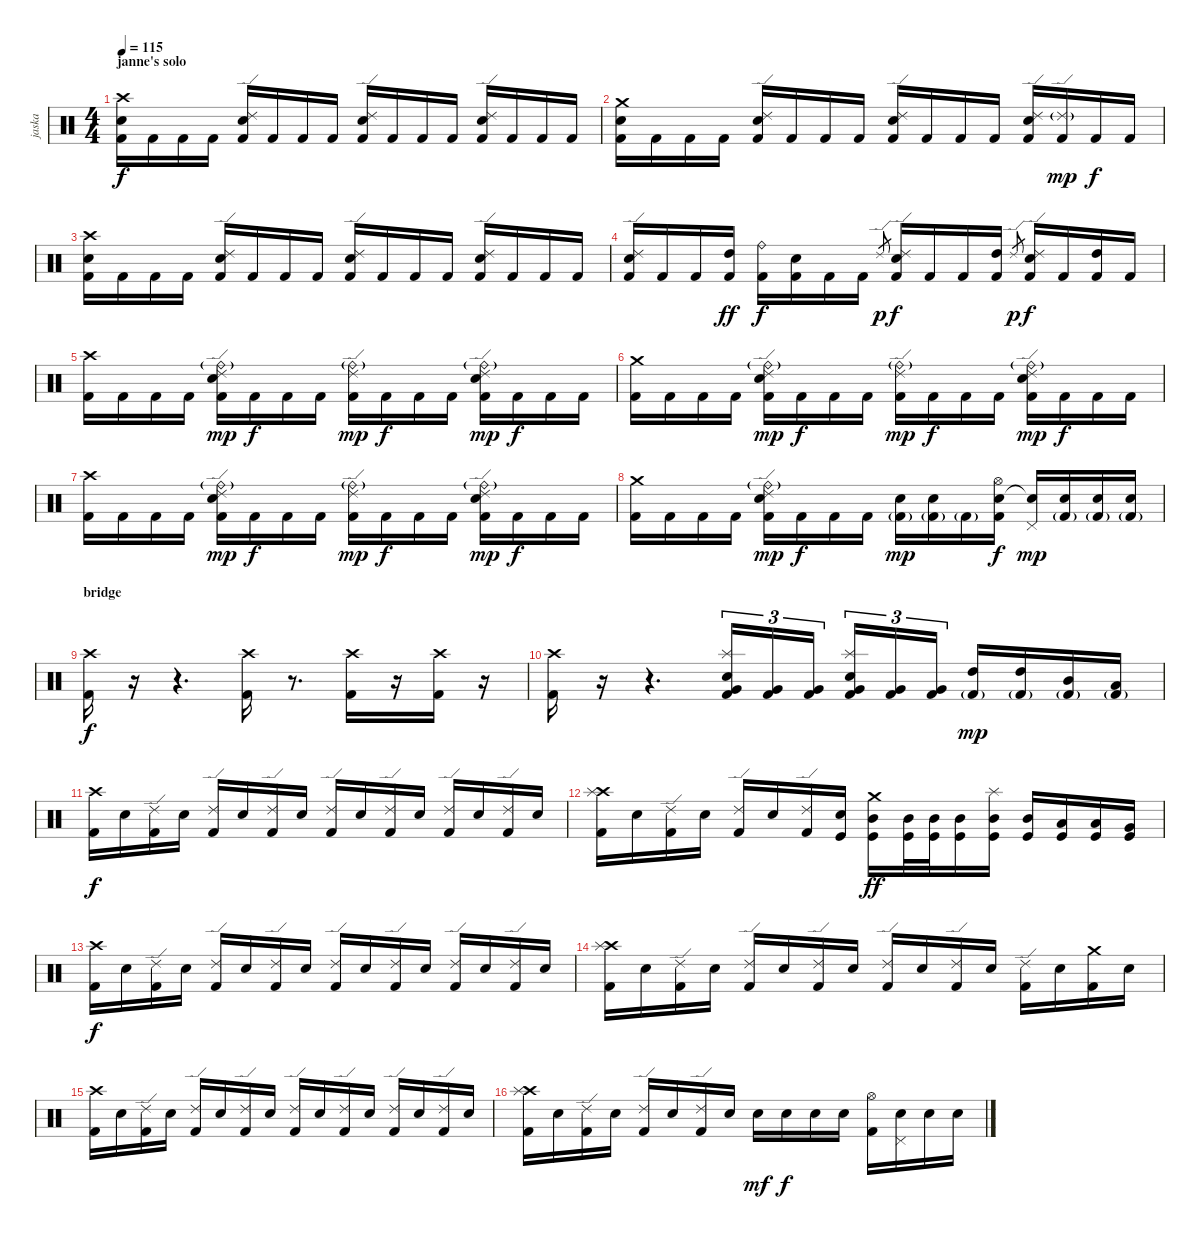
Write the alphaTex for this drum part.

\track ("jaska" "jaska") {instrument percussion}
\staff {score}
\articulation defaults
\ts (4 4)
\section ("" "janne's solo")
\tempo 115
\clef neutral
\ks c
("Crash high (hit)" "Electric Snare (hit)" "Kick (hit) 2").16{dy f} "Kick (hit) 2".16 "Kick (hit) 2".16 "Kick (hit) 2".16 ("Ride (edge) 2" "Electric Snare (hit)" "Kick (hit) 2").16 "Kick (hit) 2".16 "Kick (hit) 2".16 "Kick (hit) 2".16 ("Ride (edge) 2" "Electric Snare (hit)" "Kick (hit) 2").16 "Kick (hit) 2".16 "Kick (hit) 2".16 "Kick (hit) 2".16 ("Ride (edge) 2" "Electric Snare (hit)" "Kick (hit) 2").16 "Kick (hit) 2".16 "Kick (hit) 2".16 "Kick (hit) 2".16 |
("Crash medium (hit)" "Electric Snare (hit)" "Kick (hit) 2").16 "Kick (hit) 2".16 "Kick (hit) 2".16 "Kick (hit) 2".16 ("Ride (edge) 2" "Electric Snare (hit)" "Kick (hit) 2").16 "Kick (hit) 2".16 "Kick (hit) 2".16 "Kick (hit) 2".16 ("Ride (edge) 2" "Electric Snare (hit)" "Kick (hit) 2").16 "Kick (hit) 2".16 "Kick (hit) 2".16 "Kick (hit) 2".16 ("Ride (edge) 2" "Electric Snare (hit)" "Kick (hit) 2").16 ("Ride (edge) 2"{g} "Kick (hit) 2").16{dy mp} "Kick (hit) 2".16{dy f} "Kick (hit) 2".16 |
("Crash high (hit)" "Electric Snare (hit)" "Kick (hit) 2").16 "Kick (hit) 2".16 "Kick (hit) 2".16 "Kick (hit) 2".16 ("Ride (edge) 2" "Electric Snare (hit)" "Kick (hit) 2").16 "Kick (hit) 2".16 "Kick (hit) 2".16 "Kick (hit) 2".16 ("Ride (edge) 2" "Electric Snare (hit)" "Kick (hit) 2").16 "Kick (hit) 2".16 "Kick (hit) 2".16 "Kick (hit) 2".16 ("Ride (edge) 2" "Electric Snare (hit)" "Kick (hit) 2").16 "Kick (hit) 2".16 "Kick (hit) 2".16 "Kick (hit) 2".16 |
("Ride (edge) 2" "Electric Snare (hit)" "Kick (hit) 2").16 "Kick (hit) 2".16 "Kick (hit) 2".16 ("High Tom (hit)" "Kick (hit) 2").16{dy ff} ("Ride (bell)" "Kick (hit) 2").16{dy f} ("Electric Snare (hit)" "Kick (hit) 2").16 "Kick (hit) 2".16 "Kick (hit) 2".16 "Ride (edge) 2".8{gr dy p} ("Ride (edge) 2" "Electric Snare (hit)" "Kick (hit) 2").16{dy f} "Kick (hit) 2".16 "Kick (hit) 2".16 ("High Tom (hit)" "Kick (hit) 2").16 "Ride (edge) 2".8{gr dy p} ("Ride (edge) 2" "Electric Snare (hit)" "Kick (hit) 2").16{dy f} "Kick (hit) 2".16 ("High Tom (hit)" "Kick (hit) 2").16 "Kick (hit) 2".16 |
("Crash high (hit)" "Kick (hit) 2").16 "Kick (hit) 2".16 "Kick (hit) 2".16 "Kick (hit) 2".16 ("Ride (edge) 2" "Ride (bell)"{g} "Electric Snare (hit)" "Kick (hit) 2").16{dy mp} "Kick (hit) 2".16{dy f} "Kick (hit) 2".16 "Kick (hit) 2".16 ("Ride (edge) 2" "Ride (bell)"{g} "Kick (hit) 2").16{dy mp} "Kick (hit) 2".16{dy f} "Kick (hit) 2".16 "Kick (hit) 2".16 ("Ride (edge) 2" "Ride (bell)"{g} "Electric Snare (hit)" "Kick (hit) 2").16{dy mp} "Kick (hit) 2".16{dy f} "Kick (hit) 2".16 "Kick (hit) 2".16 |
("Crash medium (hit)" "Kick (hit) 2").16{balance 9} "Kick (hit) 2".16{balance 8} "Kick (hit) 2".16 "Kick (hit) 2".16 ("Ride (edge) 2" "Ride (bell)"{g} "Electric Snare (hit)" "Kick (hit) 2").16{dy mp} "Kick (hit) 2".16{dy f} "Kick (hit) 2".16 "Kick (hit) 2".16 ("Ride (edge) 2" "Ride (bell)"{g} "Kick (hit) 2").16{dy mp} "Kick (hit) 2".16{dy f} "Kick (hit) 2".16 "Kick (hit) 2".16 ("Ride (edge) 2" "Ride (bell)"{g} "Electric Snare (hit)" "Kick (hit) 2").16{dy mp} "Kick (hit) 2".16{dy f} "Kick (hit) 2".16 "Kick (hit) 2".16 |
("Crash high (hit)" "Kick (hit) 2").16 "Kick (hit) 2".16 "Kick (hit) 2".16 "Kick (hit) 2".16 ("Ride (edge) 2" "Ride (bell)"{g} "Electric Snare (hit)" "Kick (hit) 2").16{dy mp} "Kick (hit) 2".16{dy f} "Kick (hit) 2".16 "Kick (hit) 2".16 ("Ride (edge) 2" "Ride (bell)"{g} "Kick (hit) 2").16{dy mp} "Kick (hit) 2".16{dy f} "Kick (hit) 2".16 "Kick (hit) 2".16 ("Ride (edge) 2" "Ride (bell)"{g} "Electric Snare (hit)" "Kick (hit) 2").16{dy mp} "Kick (hit) 2".16{dy f} "Kick (hit) 2".16 "Kick (hit) 2".16 |
("Crash medium (hit)" "Kick (hit) 2").16 "Kick (hit) 2".16 "Kick (hit) 2".16 "Kick (hit) 2".16 ("Ride (edge) 2" "Ride (bell)"{g} "Electric Snare (hit)" "Kick (hit) 2").16{dy mp} "Kick (hit) 2".16{dy f} "Kick (hit) 2".16 "Kick (hit) 2".16 ("Electric Snare (hit)" "Kick (hit) 2"{g}).16{dy mp} ("Electric Snare (hit)" "Kick (hit) 2"{g}).16 "Kick (hit) 2"{g}.16 ("Hi-Hat (open)" "Electric Snare (hit)" "Kick (hit) 2").16{dy f} ("Pedal Hi-Hat (hit)" "Snare (hit)"{t}).16{dy mp} ("Electric Snare (hit)" "Kick (hit) 2"{g}).16 ("Electric Snare (hit)" "Kick (hit) 2"{g}).16 ("Electric Snare (hit)" "Kick (hit) 2"{g}).16 |
\section ("" "bridge")
("Crash high (hit)"{pm} "Kick (hit) 2").16{dy f} r.16 r.4{d} ("Crash high (hit)"{pm} "Kick (hit) 2").16 r.8{d} ("Crash high (hit)"{pm} "Kick (hit) 2").16 r.16 ("Crash high (hit)"{pm} "Kick (hit) 2").16 r.16 |
("Crash high (hit)"{pm} "Kick (hit) 2").16 r.16 r.4{d} ("Splash (hit)" "Electric Snare (hit)" "Very Low Tom (hit)" "Kick (hit) 2").16{tu (3 2)} ("Very Low Tom (hit)" "Kick (hit) 2").16{tu (3 2)} ("Very Low Tom (hit)" "Kick (hit) 2").16{tu (3 2)} ("Splash (hit)" "Electric Snare (hit)" "Very Low Tom (hit)" "Kick (hit) 2").16{tu (3 2)} ("Very Low Tom (hit)" "Kick (hit) 2").16{tu (3 2)} ("Very Low Tom (hit)" "Kick (hit) 2").16{tu (3 2)} ("High Tom (hit)" "Kick (hit) 2"{g}).16{dy mp} ("High Tom (hit)" "Kick (hit) 2"{g}).16 ("Mid Tom (hit)" "Kick (hit) 2"{g}).16 ("Low Tom (hit)" "Kick (hit) 2"{g}).16 |
("Crash high (hit)" "Kick (hit) 2").16{dy f} "Electric Snare (hit)".16 ("Ride (edge) 2" "Kick (hit) 2").16 "Electric Snare (hit)".16 ("Ride (edge) 2" "Kick (hit) 2").16 "Electric Snare (hit)".16 ("Ride (edge) 2" "Kick (hit) 2").16 "Electric Snare (hit)".16 ("Ride (edge) 2" "Kick (hit) 2").16 "Electric Snare (hit)".16 ("Ride (edge) 2" "Kick (hit) 2").16 "Electric Snare (hit)".16 ("Ride (edge) 2" "Kick (hit) 2").16 "Electric Snare (hit)".16 ("Ride (edge) 2" "Kick (hit) 2").16 "Electric Snare (hit)".16 |
("Crash high (hit)" "Splash (hit)" "Kick (hit) 2").16 "Electric Snare (hit)".16 ("Ride (edge) 2" "Kick (hit) 2").16 "Electric Snare (hit)".16 ("Ride (edge) 2" "Kick (hit) 2").16 "Electric Snare (hit)".16 ("Ride (edge) 2" "Kick (hit) 2").16 ("Electric Snare (hit)" "Kick (hit)").16 ("Crash medium (hit)" "Mid Tom (hit)" "Kick (hit)").16{dy ff} ("Mid Tom (hit)" "Kick (hit)").32 ("Mid Tom (hit)" "Kick (hit)").32 ("Mid Tom (hit)" "Kick (hit)").16 ("Splash (hit)" "Mid Tom (hit)" "Kick (hit)").16 ("Mid Tom (hit)" "Kick (hit)").16 ("Low Tom (hit)" "Kick (hit)").16 ("Low Tom (hit)" "Kick (hit)").16 ("Very Low Tom (hit)" "Kick (hit)").16 |
("Crash high (hit)" "Kick (hit) 2").16{dy f} "Electric Snare (hit)".16 ("Ride (edge) 2" "Kick (hit) 2").16 "Electric Snare (hit)".16 ("Ride (edge) 2" "Kick (hit) 2").16 "Electric Snare (hit)".16 ("Ride (edge) 2" "Kick (hit) 2").16 "Electric Snare (hit)".16 ("Ride (edge) 2" "Kick (hit) 2").16 "Electric Snare (hit)".16 ("Ride (edge) 2" "Kick (hit) 2").16 "Electric Snare (hit)".16 ("Ride (edge) 2" "Kick (hit) 2").16 "Electric Snare (hit)".16 ("Ride (edge) 2" "Kick (hit) 2").16 "Electric Snare (hit)".16 |
("Crash high (hit)" "Splash (hit)" "Kick (hit) 2").16 "Electric Snare (hit)".16 ("Ride (edge) 2" "Kick (hit) 2").16 "Electric Snare (hit)".16 ("Ride (edge) 2" "Kick (hit) 2").16 "Electric Snare (hit)".16 ("Ride (edge) 2" "Kick (hit) 2").16 "Electric Snare (hit)".16 ("Ride (edge) 2" "Kick (hit) 2").16 "Electric Snare (hit)".16 ("Ride (edge) 2" "Kick (hit) 2").16 "Electric Snare (hit)".16 ("Ride (edge) 2" "Kick (hit) 2").16 "Electric Snare (hit)".16 ("Crash medium (hit)" "Kick (hit) 2").16 "Electric Snare (hit)".16 |
("Crash high (hit)" "Kick (hit) 2").16 "Electric Snare (hit)".16 ("Ride (edge) 2" "Kick (hit) 2").16 "Electric Snare (hit)".16 ("Ride (edge) 2" "Kick (hit) 2").16 "Electric Snare (hit)".16 ("Ride (edge) 2" "Kick (hit) 2").16 "Electric Snare (hit)".16 ("Ride (edge) 2" "Kick (hit) 2").16 "Electric Snare (hit)".16 ("Ride (edge) 2" "Kick (hit) 2").16 "Electric Snare (hit)".16 ("Ride (edge) 2" "Kick (hit) 2").16 "Electric Snare (hit)".16 ("Ride (edge) 2" "Kick (hit) 2").16 "Electric Snare (hit)".16 |
("Crash high (hit)" "Splash (hit)" "Kick (hit) 2").16 "Electric Snare (hit)".16 ("Ride (edge) 2" "Kick (hit) 2").16 "Electric Snare (hit)".16 ("Ride (edge) 2" "Kick (hit) 2").16 "Electric Snare (hit)".16 ("Ride (edge) 2" "Kick (hit) 2").16 "Electric Snare (hit)".16 "Electric Snare (hit)".16{dy mf} "Electric Snare (hit)".16{dy f} "Electric Snare (hit)".16 "Electric Snare (hit)".16 ("Hi-Hat (open)" "Kick (hit) 2").16 ("Pedal Hi-Hat (hit)" "Electric Snare (hit)").16 "Electric Snare (hit)".16 "Electric Snare (hit)".16
